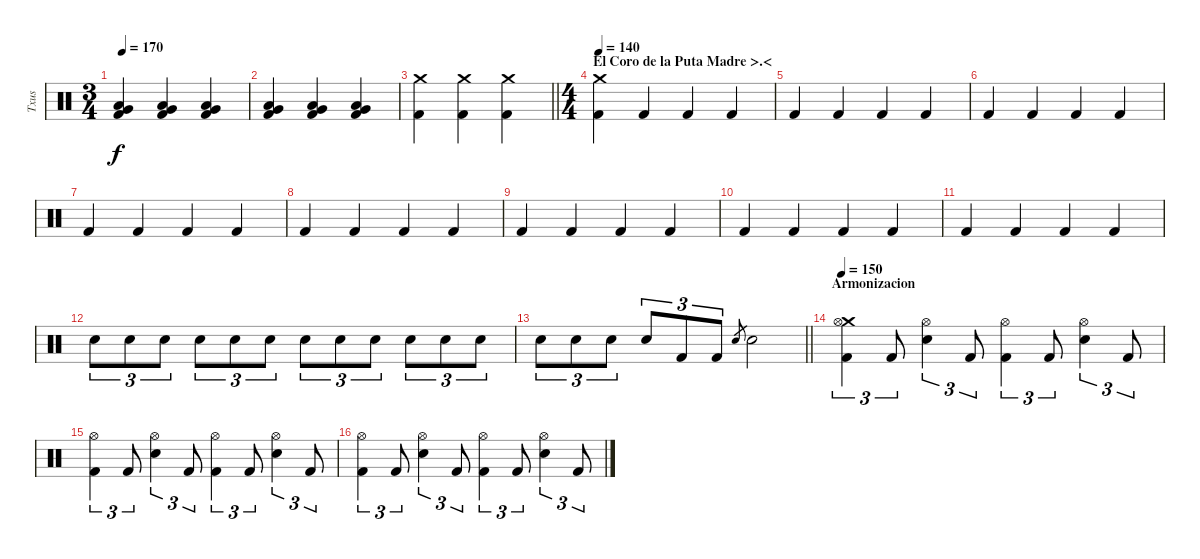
\track ("Txus" "Txus") {instrument percussion}
\staff {score}
\articulation defaults
\ts (3 4)
\tempo 170
\clef neutral
\ks c
("Very Low Tom (hit)" "Low Floor Tom (hit)" "Kick (hit) 2").4{dy f} ("Very Low Tom (hit)" "Low Floor Tom (hit)" "Kick (hit) 2").4 ("Very Low Tom (hit)" "Low Floor Tom (hit)" "Kick (hit) 2").4 |
("Very Low Tom (hit)" "Low Floor Tom (hit)" "Kick (hit) 2").4 ("Very Low Tom (hit)" "Low Floor Tom (hit)" "Kick (hit) 2").4 ("Very Low Tom (hit)" "Low Floor Tom (hit)" "Kick (hit) 2").4 |
\barLineRight lightlight
("Crash medium (hit)" "Kick (hit) 2").4 ("Crash medium (hit)" "Kick (hit) 2").4 ("Crash medium (hit)" "Kick (hit) 2").4 |
\ts (4 4)
\section ("" "El Coro de la Puta Madre >.<")
\tempo 140
("Crash medium (hit)" "Kick (hit) 2").4 "Kick (hit) 2".4 "Kick (hit) 2".4 "Kick (hit) 2".4 |
"Kick (hit) 2".4 "Kick (hit) 2".4 "Kick (hit) 2".4 "Kick (hit) 2".4 |
"Kick (hit) 2".4 "Kick (hit) 2".4 "Kick (hit) 2".4 "Kick (hit) 2".4 |
"Kick (hit) 2".4 "Kick (hit) 2".4 "Kick (hit) 2".4 "Kick (hit) 2".4 |
"Kick (hit) 2".4 "Kick (hit) 2".4 "Kick (hit) 2".4 "Kick (hit) 2".4 |
"Kick (hit) 2".4 "Kick (hit) 2".4 "Kick (hit) 2".4 "Kick (hit) 2".4 |
"Kick (hit) 2".4 "Kick (hit) 2".4 "Kick (hit) 2".4 "Kick (hit) 2".4 |
"Kick (hit) 2".4 "Kick (hit) 2".4 "Kick (hit) 2".4 "Kick (hit) 2".4 |
"Electric Snare (hit)".8{tu (3 2)} "Electric Snare (hit)".8{tu (3 2)} "Electric Snare (hit)".8{tu (3 2)} "Electric Snare (hit)".8{tu (3 2)} "Electric Snare (hit)".8{tu (3 2)} "Electric Snare (hit)".8{tu (3 2)} "Electric Snare (hit)".8{tu (3 2)} "Electric Snare (hit)".8{tu (3 2)} "Electric Snare (hit)".8{tu (3 2)} "Electric Snare (hit)".8{tu (3 2)} "Electric Snare (hit)".8{tu (3 2)} "Electric Snare (hit)".8{tu (3 2)} |
\barLineRight lightlight "Electric Snare (hit)".8{tu (3 2)} "Electric Snare (hit)".8{tu (3 2)} "Electric Snare (hit)".8{tu (3 2)} "Electric Snare (hit)".8{tu (3 2)} "Kick (hit) 2".8{tu (3 2)} "Kick (hit) 2".8{tu (3 2)} "Electric Snare (hit)".8{gr} "Electric Snare (hit)".2
|
\section ("" "Armonizacion")
\tempo 150
("Crash medium (hit)" "Hi-Hat (open)" "Kick (hit) 2").4{tu (3 2)} "Kick (hit) 2".8{tu (3 2)} ("Hi-Hat (open)" "Electric Snare (hit)").4{tu (3 2)} "Kick (hit) 2".8{tu (3 2)} ("Hi-Hat (open)" "Kick (hit) 2").4{tu (3 2)} "Kick (hit) 2".8{tu (3 2)} ("Hi-Hat (open)" "Electric Snare (hit)").4{tu (3 2)} "Kick (hit) 2".8{tu (3 2)} |
("Hi-Hat (open)" "Kick (hit) 2").4{tu (3 2)} "Kick (hit) 2".8{tu (3 2)} ("Hi-Hat (open)" "Electric Snare (hit)").4{tu (3 2)} "Kick (hit) 2".8{tu (3 2)} ("Hi-Hat (open)" "Kick (hit) 2").4{tu (3 2)} "Kick (hit) 2".8{tu (3 2)} ("Hi-Hat (open)" "Electric Snare (hit)").4{tu (3 2)} "Kick (hit) 2".8{tu (3 2)} |
("Hi-Hat (open)" "Kick (hit) 2").4{tu (3 2)} "Kick (hit) 2".8{tu (3 2)} ("Hi-Hat (open)" "Electric Snare (hit)").4{tu (3 2)} "Kick (hit) 2".8{tu (3 2)} ("Hi-Hat (open)" "Kick (hit) 2").4{tu (3 2)} "Kick (hit) 2".8{tu (3 2)} ("Hi-Hat (open)" "Electric Snare (hit)").4{tu (3 2)} "Kick (hit) 2".8{tu (3 2)}
